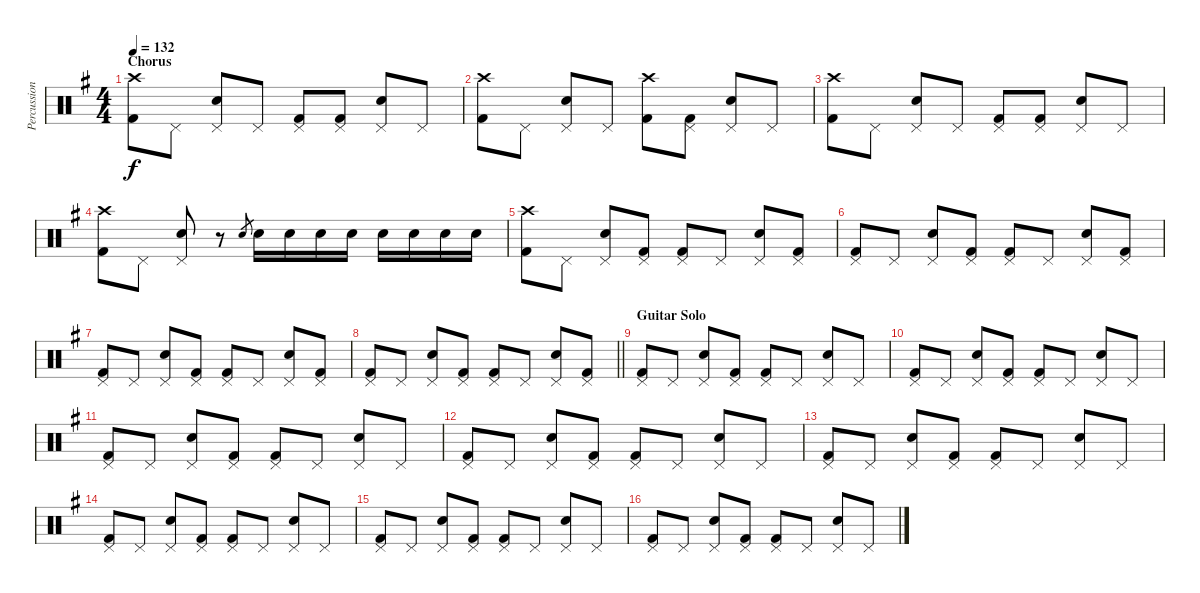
\track ("Percussion" "Percussion") {instrument percussion}
\staff {score}
\articulation defaults
\ts (4 4)
\section ("" "Chorus")
\tempo 132
\clef neutral
\ks g
("Crash high (hit)" "Kick (hit) 2").8{dy f} "Pedal Hi-Hat (hit)".8 ("Pedal Hi-Hat (hit)" "Snare (hit) 2").8 "Pedal Hi-Hat (hit)".8 ("Pedal Hi-Hat (hit)" "Kick (hit) 2").8 ("Pedal Hi-Hat (hit)" "Kick (hit) 2").8 ("Pedal Hi-Hat (hit)" "Snare (hit) 2").8 "Pedal Hi-Hat (hit)".8 |
("Crash high (hit)" "Kick (hit) 2").8 "Pedal Hi-Hat (hit)".8 ("Pedal Hi-Hat (hit)" "Snare (hit) 2").8 "Pedal Hi-Hat (hit)".8 ("Crash high (hit)" "Kick (hit) 2").8 ("Pedal Hi-Hat (hit)" "Kick (hit) 2").8 ("Pedal Hi-Hat (hit)" "Snare (hit) 2").8 "Pedal Hi-Hat (hit)".8 |
("Crash high (hit)" "Kick (hit) 2").8 "Pedal Hi-Hat (hit)".8 ("Pedal Hi-Hat (hit)" "Snare (hit) 2").8 "Pedal Hi-Hat (hit)".8 ("Pedal Hi-Hat (hit)" "Kick (hit) 2").8 ("Pedal Hi-Hat (hit)" "Kick (hit) 2").8 ("Pedal Hi-Hat (hit)" "Snare (hit) 2").8 "Pedal Hi-Hat (hit)".8 |
("Crash high (hit)" "Kick (hit) 2").8 "Pedal Hi-Hat (hit)".8 ("Pedal Hi-Hat (hit)" "Snare (hit) 2").8 r.8 "Electric Snare (hit)".8{gr} "Electric Snare (hit)".16 "Electric Snare (hit)".16 "Electric Snare (hit)".16 "Electric Snare (hit)".16 "Electric Snare (hit)".16 "Electric Snare (hit)".16 "Electric Snare (hit)".16 "Electric Snare (hit)".16 |
("Crash high (hit)" "Kick (hit) 2").8 "Pedal Hi-Hat (hit)".8 ("Pedal Hi-Hat (hit)" "Snare (hit) 2").8 ("Pedal Hi-Hat (hit)" "Kick (hit) 2").8 ("Pedal Hi-Hat (hit)" "Kick (hit) 2").8 "Pedal Hi-Hat (hit)".8 ("Pedal Hi-Hat (hit)" "Snare (hit) 2").8 ("Pedal Hi-Hat (hit)" "Kick (hit) 2").8 |
("Pedal Hi-Hat (hit)" "Kick (hit) 2").8 "Pedal Hi-Hat (hit)".8 ("Pedal Hi-Hat (hit)" "Snare (hit) 2").8 ("Pedal Hi-Hat (hit)" "Kick (hit) 2").8 ("Pedal Hi-Hat (hit)" "Kick (hit) 2").8 "Pedal Hi-Hat (hit)".8 ("Pedal Hi-Hat (hit)" "Snare (hit) 2").8 ("Pedal Hi-Hat (hit)" "Kick (hit) 2").8 |
("Pedal Hi-Hat (hit)" "Kick (hit) 2").8 "Pedal Hi-Hat (hit)".8 ("Pedal Hi-Hat (hit)" "Snare (hit) 2").8 ("Pedal Hi-Hat (hit)" "Kick (hit) 2").8 ("Pedal Hi-Hat (hit)" "Kick (hit) 2").8 "Pedal Hi-Hat (hit)".8 ("Pedal Hi-Hat (hit)" "Snare (hit) 2").8 ("Pedal Hi-Hat (hit)" "Kick (hit) 2").8 |
\barLineRight lightlight
("Pedal Hi-Hat (hit)" "Kick (hit) 2").8 "Pedal Hi-Hat (hit)".8 ("Pedal Hi-Hat (hit)" "Snare (hit) 2").8 ("Pedal Hi-Hat (hit)" "Kick (hit) 2").8 ("Pedal Hi-Hat (hit)" "Kick (hit) 2").8 "Pedal Hi-Hat (hit)".8 ("Pedal Hi-Hat (hit)" "Snare (hit) 2").8 ("Pedal Hi-Hat (hit)" "Kick (hit) 2").8 |
\section ("" "Guitar Solo")
("Pedal Hi-Hat (hit)" "Kick (hit) 2").8 "Pedal Hi-Hat (hit)".8 ("Pedal Hi-Hat (hit)" "Snare (hit) 2").8 ("Pedal Hi-Hat (hit)" "Kick (hit) 2").8 ("Pedal Hi-Hat (hit)" "Kick (hit) 2").8 "Pedal Hi-Hat (hit)".8 ("Pedal Hi-Hat (hit)" "Snare (hit) 2").8 "Pedal Hi-Hat (hit)".8 |
("Pedal Hi-Hat (hit)" "Kick (hit) 2").8 "Pedal Hi-Hat (hit)".8 ("Pedal Hi-Hat (hit)" "Snare (hit) 2").8 ("Pedal Hi-Hat (hit)" "Kick (hit) 2").8 ("Pedal Hi-Hat (hit)" "Kick (hit) 2").8 "Pedal Hi-Hat (hit)".8 ("Pedal Hi-Hat (hit)" "Snare (hit) 2").8 "Pedal Hi-Hat (hit)".8 |
("Pedal Hi-Hat (hit)" "Kick (hit) 2").8 "Pedal Hi-Hat (hit)".8 ("Pedal Hi-Hat (hit)" "Snare (hit) 2").8 ("Pedal Hi-Hat (hit)" "Kick (hit) 2").8 ("Pedal Hi-Hat (hit)" "Kick (hit) 2").8 "Pedal Hi-Hat (hit)".8 ("Pedal Hi-Hat (hit)" "Snare (hit) 2").8 "Pedal Hi-Hat (hit)".8 |
("Pedal Hi-Hat (hit)" "Kick (hit) 2").8 "Pedal Hi-Hat (hit)".8 ("Pedal Hi-Hat (hit)" "Snare (hit) 2").8 ("Pedal Hi-Hat (hit)" "Kick (hit) 2").8 ("Pedal Hi-Hat (hit)" "Kick (hit) 2").8 "Pedal Hi-Hat (hit)".8 ("Pedal Hi-Hat (hit)" "Snare (hit) 2").8 "Pedal Hi-Hat (hit)".8 |
("Pedal Hi-Hat (hit)" "Kick (hit) 2").8 "Pedal Hi-Hat (hit)".8 ("Pedal Hi-Hat (hit)" "Snare (hit) 2").8 ("Pedal Hi-Hat (hit)" "Kick (hit) 2").8 ("Pedal Hi-Hat (hit)" "Kick (hit) 2").8 "Pedal Hi-Hat (hit)".8 ("Pedal Hi-Hat (hit)" "Snare (hit) 2").8 "Pedal Hi-Hat (hit)".8 |
("Pedal Hi-Hat (hit)" "Kick (hit) 2").8 "Pedal Hi-Hat (hit)".8 ("Pedal Hi-Hat (hit)" "Snare (hit) 2").8 ("Pedal Hi-Hat (hit)" "Kick (hit) 2").8 ("Pedal Hi-Hat (hit)" "Kick (hit) 2").8 "Pedal Hi-Hat (hit)".8 ("Pedal Hi-Hat (hit)" "Snare (hit) 2").8 "Pedal Hi-Hat (hit)".8 |
("Pedal Hi-Hat (hit)" "Kick (hit) 2").8 "Pedal Hi-Hat (hit)".8 ("Pedal Hi-Hat (hit)" "Snare (hit) 2").8 ("Pedal Hi-Hat (hit)" "Kick (hit) 2").8 ("Pedal Hi-Hat (hit)" "Kick (hit) 2").8 "Pedal Hi-Hat (hit)".8 ("Pedal Hi-Hat (hit)" "Snare (hit) 2").8 "Pedal Hi-Hat (hit)".8 |
("Pedal Hi-Hat (hit)" "Kick (hit) 2").8 "Pedal Hi-Hat (hit)".8 ("Pedal Hi-Hat (hit)" "Snare (hit) 2").8 ("Pedal Hi-Hat (hit)" "Kick (hit) 2").8 ("Pedal Hi-Hat (hit)" "Kick (hit) 2").8 "Pedal Hi-Hat (hit)".8 ("Pedal Hi-Hat (hit)" "Snare (hit) 2").8 "Pedal Hi-Hat (hit)".8
